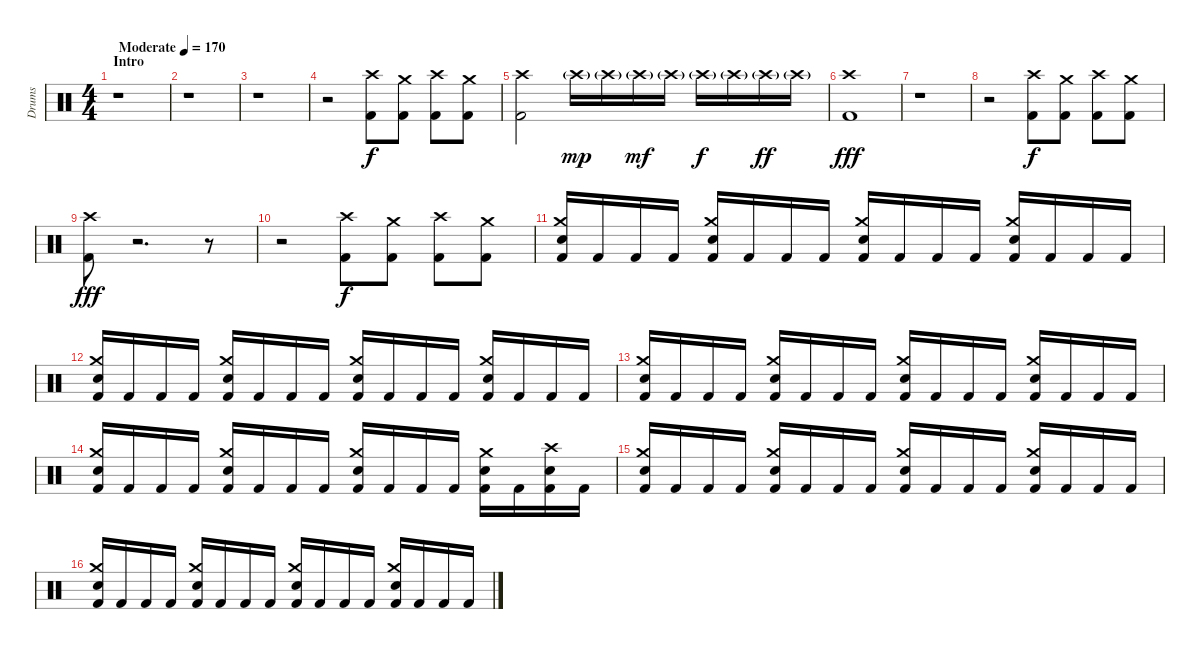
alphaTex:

\track ("Drums" "Drums") {instrument percussion}
\staff {score}
\articulation defaults
\ts (4 4)
\section ("" "Intro")
\tempo (170 "Moderate")
\clef neutral
\ks c
r.1{dy f} |
r.1 |
r.1 |
r.2 ("Crash high (hit)" "Kick (hit) 2").8 ("Crash medium (hit)" "Kick (hit) 2").8 ("Crash high (hit)" "Kick (hit) 2").8 ("Crash medium (hit)" "Kick (hit) 2").8 |
("Crash high (hit)" "Kick (hit) 2").2 "Crash high (hit)"{g}.16{dy mp} "Crash high (hit)"{g}.16 "Crash high (hit)"{g}.16{dy mf} "Crash high (hit)"{g}.16 "Crash high (hit)"{g}.16{dy f} "Crash high (hit)"{g}.16 "Crash high (hit)"{g}.16{dy ff} "Crash high (hit)"{g}.16 |
("Crash high (hit)" "Kick (hit) 2").1{dy fff} |
r.1 |
r.2 ("Crash high (hit)" "Kick (hit) 2").8{dy f} ("Crash medium (hit)" "Kick (hit) 2").8 ("Crash high (hit)" "Kick (hit) 2").8 ("Crash medium (hit)" "Kick (hit) 2").8 |
("Crash high (hit)" "Kick (hit) 2").8{dy fff} r.2{d volume 0} r.8 |
r.2 ("Crash high (hit)" "Kick (hit) 2").8{dy f volume 13} ("Crash medium (hit)" "Kick (hit) 2").8 ("Crash high (hit)" "Kick (hit) 2").8 ("Crash medium (hit)" "Kick (hit) 2").8 |
("Crash medium (hit)" "Electric Snare (hit)" "Kick (hit) 2").16 "Kick (hit) 2".16 "Kick (hit) 2".16 "Kick (hit) 2".16 ("Crash medium (hit)" "Electric Snare (hit)" "Kick (hit) 2").16 "Kick (hit) 2".16 "Kick (hit) 2".16 "Kick (hit) 2".16 ("Crash medium (hit)" "Electric Snare (hit)" "Kick (hit) 2").16 "Kick (hit) 2".16 "Kick (hit) 2".16 "Kick (hit) 2".16 ("Crash medium (hit)" "Electric Snare (hit)" "Kick (hit) 2").16 "Kick (hit) 2".16 "Kick (hit) 2".16 "Kick (hit) 2".16 |
("Crash medium (hit)" "Electric Snare (hit)" "Kick (hit) 2").16 "Kick (hit) 2".16 "Kick (hit) 2".16 "Kick (hit) 2".16 ("Crash medium (hit)" "Electric Snare (hit)" "Kick (hit) 2").16 "Kick (hit) 2".16 "Kick (hit) 2".16 "Kick (hit) 2".16 ("Crash medium (hit)" "Electric Snare (hit)" "Kick (hit) 2").16 "Kick (hit) 2".16 "Kick (hit) 2".16 "Kick (hit) 2".16 ("Crash medium (hit)" "Electric Snare (hit)" "Kick (hit) 2").16 "Kick (hit) 2".16 "Kick (hit) 2".16 "Kick (hit) 2".16 |
("Crash medium (hit)" "Electric Snare (hit)" "Kick (hit) 2").16 "Kick (hit) 2".16 "Kick (hit) 2".16 "Kick (hit) 2".16 ("Crash medium (hit)" "Electric Snare (hit)" "Kick (hit) 2").16 "Kick (hit) 2".16 "Kick (hit) 2".16 "Kick (hit) 2".16 ("Crash medium (hit)" "Electric Snare (hit)" "Kick (hit) 2").16 "Kick (hit) 2".16 "Kick (hit) 2".16 "Kick (hit) 2".16 ("Crash medium (hit)" "Electric Snare (hit)" "Kick (hit) 2").16 "Kick (hit) 2".16 "Kick (hit) 2".16 "Kick (hit) 2".16 |
("Crash medium (hit)" "Electric Snare (hit)" "Kick (hit) 2").16 "Kick (hit) 2".16 "Kick (hit) 2".16 "Kick (hit) 2".16 ("Crash medium (hit)" "Electric Snare (hit)" "Kick (hit) 2").16 "Kick (hit) 2".16 "Kick (hit) 2".16 "Kick (hit) 2".16 ("Crash medium (hit)" "Electric Snare (hit)" "Kick (hit) 2").16 "Kick (hit) 2".16 "Kick (hit) 2".16 "Kick (hit) 2".16 ("Crash medium (hit)" "Electric Snare (hit)" "Kick (hit) 2").16 "Kick (hit) 2".16 ("Crash high (hit)" "Electric Snare (hit)" "Kick (hit) 2").16 "Kick (hit) 2".16 |
("Crash medium (hit)" "Electric Snare (hit)" "Kick (hit) 2").16 "Kick (hit) 2".16 "Kick (hit) 2".16 "Kick (hit) 2".16 ("Crash medium (hit)" "Electric Snare (hit)" "Kick (hit) 2").16 "Kick (hit) 2".16 "Kick (hit) 2".16 "Kick (hit) 2".16 ("Crash medium (hit)" "Electric Snare (hit)" "Kick (hit) 2").16 "Kick (hit) 2".16 "Kick (hit) 2".16 "Kick (hit) 2".16 ("Crash medium (hit)" "Electric Snare (hit)" "Kick (hit) 2").16 "Kick (hit) 2".16 "Kick (hit) 2".16 "Kick (hit) 2".16 |
("Crash medium (hit)" "Electric Snare (hit)" "Kick (hit) 2").16 "Kick (hit) 2".16 "Kick (hit) 2".16 "Kick (hit) 2".16 ("Crash medium (hit)" "Electric Snare (hit)" "Kick (hit) 2").16 "Kick (hit) 2".16 "Kick (hit) 2".16 "Kick (hit) 2".16 ("Crash medium (hit)" "Electric Snare (hit)" "Kick (hit) 2").16 "Kick (hit) 2".16 "Kick (hit) 2".16 "Kick (hit) 2".16 ("Crash medium (hit)" "Electric Snare (hit)" "Kick (hit) 2").16 "Kick (hit) 2".16 "Kick (hit) 2".16 "Kick (hit) 2".16
